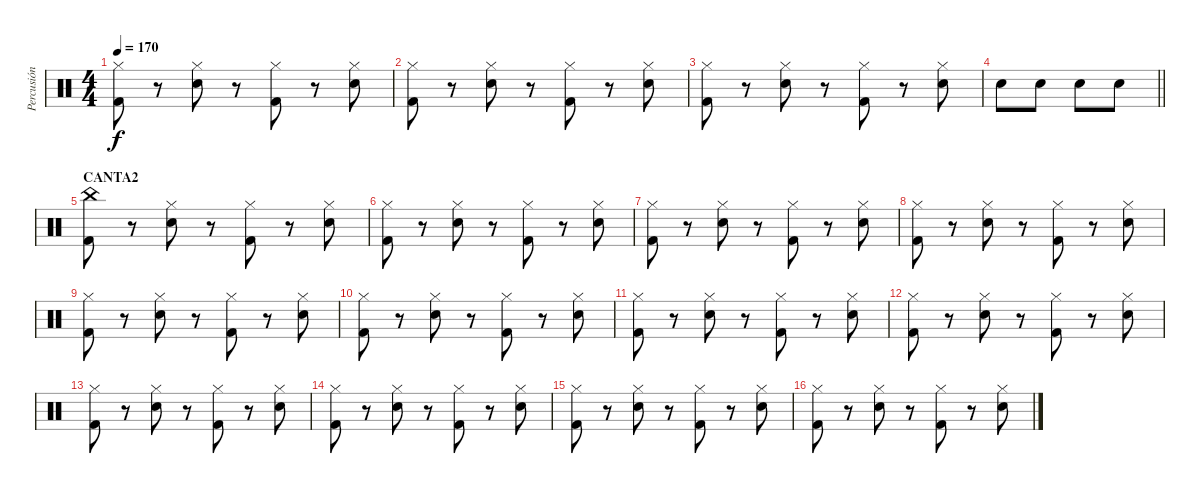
\track ("Percusión" "Percusión") {instrument percussion}
\staff {score}
\articulation defaults
\ts (4 4)
\tempo 170
\clef neutral
\ks c
("Hi-Hat (closed)" "Kick (hit) 2").8{dy f} r.8 ("Hi-Hat (closed)" "Electric Snare (hit)").8 r.8 ("Hi-Hat (closed)" "Kick (hit) 2").8 r.8 ("Hi-Hat (closed)" "Electric Snare (hit)").8 |
("Hi-Hat (closed)" "Kick (hit) 2").8 r.8 ("Hi-Hat (closed)" "Electric Snare (hit)").8 r.8 ("Hi-Hat (closed)" "Kick (hit) 2").8 r.8 ("Hi-Hat (closed)" "Electric Snare (hit)").8 |
("Hi-Hat (closed)" "Kick (hit) 2").8 r.8 ("Hi-Hat (closed)" "Electric Snare (hit)").8 r.8 ("Hi-Hat (closed)" "Kick (hit) 2").8 r.8 ("Hi-Hat (closed)" "Electric Snare (hit)").8 |
\barLineRight lightlight "Electric Snare (hit)".8 "Electric Snare (hit)".8 "Electric Snare (hit)".8 "Electric Snare (hit)".8
|
\section ("" "CANTA2")
("China (hit)" "Kick (hit) 2").8 r.8 ("Hi-Hat (closed)" "Electric Snare (hit)").8 r.8 ("Hi-Hat (closed)" "Kick (hit) 2").8 r.8 ("Hi-Hat (closed)" "Electric Snare (hit)").8 |
("Hi-Hat (closed)" "Kick (hit) 2").8 r.8 ("Hi-Hat (closed)" "Electric Snare (hit)").8 r.8 ("Hi-Hat (closed)" "Kick (hit) 2").8 r.8 ("Hi-Hat (closed)" "Electric Snare (hit)").8 |
("Hi-Hat (closed)" "Kick (hit) 2").8 r.8 ("Hi-Hat (closed)" "Electric Snare (hit)").8 r.8 ("Hi-Hat (closed)" "Kick (hit) 2").8 r.8 ("Hi-Hat (closed)" "Electric Snare (hit)").8 |
("Hi-Hat (closed)" "Kick (hit) 2").8 r.8 ("Hi-Hat (closed)" "Electric Snare (hit)").8 r.8 ("Hi-Hat (closed)" "Kick (hit) 2").8 r.8 ("Hi-Hat (closed)" "Electric Snare (hit)").8 |
("Hi-Hat (closed)" "Kick (hit) 2").8 r.8 ("Hi-Hat (closed)" "Electric Snare (hit)").8 r.8 ("Hi-Hat (closed)" "Kick (hit) 2").8 r.8 ("Hi-Hat (closed)" "Electric Snare (hit)").8 |
("Hi-Hat (closed)" "Kick (hit) 2").8 r.8 ("Hi-Hat (closed)" "Electric Snare (hit)").8 r.8 ("Hi-Hat (closed)" "Kick (hit) 2").8 r.8 ("Hi-Hat (closed)" "Electric Snare (hit)").8 |
("Hi-Hat (closed)" "Kick (hit) 2").8 r.8 ("Hi-Hat (closed)" "Electric Snare (hit)").8 r.8 ("Hi-Hat (closed)" "Kick (hit) 2").8 r.8 ("Hi-Hat (closed)" "Electric Snare (hit)").8 |
("Hi-Hat (closed)" "Kick (hit) 2").8 r.8 ("Hi-Hat (closed)" "Electric Snare (hit)").8 r.8 ("Hi-Hat (closed)" "Kick (hit) 2").8 r.8 ("Hi-Hat (closed)" "Electric Snare (hit)").8 |
("Hi-Hat (closed)" "Kick (hit) 2").8 r.8 ("Hi-Hat (closed)" "Electric Snare (hit)").8 r.8 ("Hi-Hat (closed)" "Kick (hit) 2").8 r.8 ("Hi-Hat (closed)" "Electric Snare (hit)").8 |
("Hi-Hat (closed)" "Kick (hit) 2").8 r.8 ("Hi-Hat (closed)" "Electric Snare (hit)").8 r.8 ("Hi-Hat (closed)" "Kick (hit) 2").8 r.8 ("Hi-Hat (closed)" "Electric Snare (hit)").8 |
("Hi-Hat (closed)" "Kick (hit) 2").8 r.8 ("Hi-Hat (closed)" "Electric Snare (hit)").8 r.8 ("Hi-Hat (closed)" "Kick (hit) 2").8 r.8 ("Hi-Hat (closed)" "Electric Snare (hit)").8 |
("Hi-Hat (closed)" "Kick (hit) 2").8 r.8 ("Hi-Hat (closed)" "Electric Snare (hit)").8 r.8 ("Hi-Hat (closed)" "Kick (hit) 2").8 r.8 ("Hi-Hat (closed)" "Electric Snare (hit)").8
